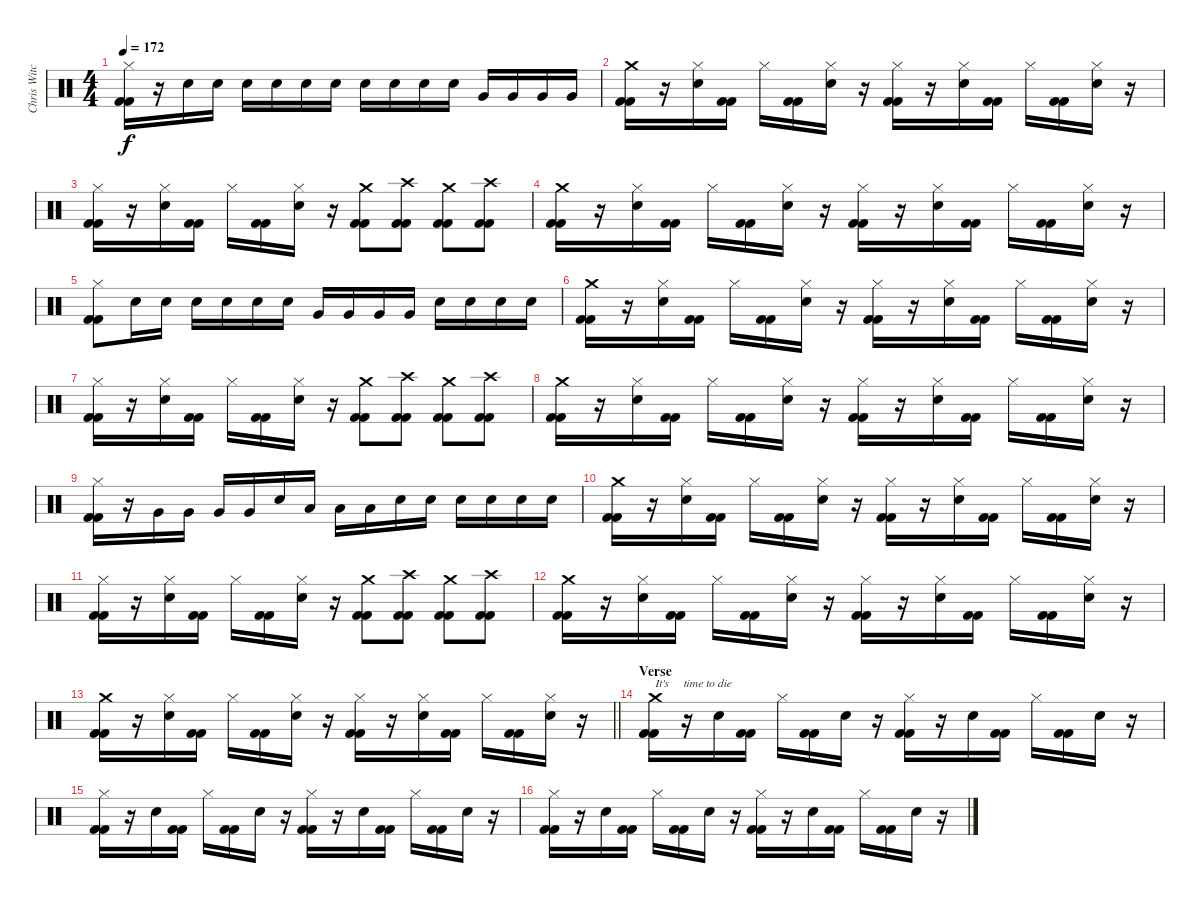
\track ("Chris Witchhunter" "Chris Witc") {instrument percussion}
\staff {score}
\articulation defaults
\ts (4 4)
\tempo 172
\clef neutral
\ks c
("Kick (hit) 2" "Kick (hit) 2" "Hi-Hat (closed)").16{dy f} r.16 "Snare (hit) 2".16 "Snare (hit) 2".16 "Snare (hit) 2".16 "Snare (hit) 2".16 "Snare (hit) 2".16 "Snare (hit) 2".16 "Snare (hit) 2".16 "Snare (hit) 2".16 "Snare (hit) 2".16 "Snare (hit) 2".16 "Very Low Tom (hit)".16 "Very Low Tom (hit)".16 "Very Low Tom (hit)".16 "Very Low Tom (hit)".16 |
("Kick (hit) 2" "Kick (hit) 2" "Crash medium (hit)").16 r.16 ("Snare (hit) 2" "Hi-Hat (closed)").16 ("Kick (hit) 2" "Kick (hit) 2").16 "Hi-Hat (closed)".16 ("Kick (hit) 2" "Kick (hit) 2").16 ("Snare (hit) 2" "Hi-Hat (closed)").16 r.16 ("Kick (hit) 2" "Kick (hit) 2" "Hi-Hat (closed)").16 r.16 ("Snare (hit) 2" "Hi-Hat (closed)").16 ("Kick (hit) 2" "Kick (hit) 2").16 "Hi-Hat (closed)".16 ("Kick (hit) 2" "Kick (hit) 2").16 ("Snare (hit) 2" "Hi-Hat (closed)").16 r.16 |
("Kick (hit) 2" "Kick (hit) 2" "Hi-Hat (closed)").16 r.16 ("Snare (hit) 2" "Hi-Hat (closed)").16 ("Kick (hit) 2" "Kick (hit) 2").16 "Hi-Hat (closed)".16 ("Kick (hit) 2" "Kick (hit) 2").16 ("Snare (hit) 2" "Hi-Hat (closed)").16 r.16 ("Kick (hit) 2" "Kick (hit) 2" "Crash medium (hit)").8 ("Kick (hit) 2" "Kick (hit) 2" "Crash high (hit)").8 ("Kick (hit) 2" "Kick (hit) 2" "Crash medium (hit)").8 ("Kick (hit) 2" "Kick (hit) 2" "Crash high (hit)").8 |
("Kick (hit) 2" "Kick (hit) 2" "Crash medium (hit)").16 r.16 ("Snare (hit) 2" "Hi-Hat (closed)").16 ("Kick (hit) 2" "Kick (hit) 2").16 "Hi-Hat (closed)".16 ("Kick (hit) 2" "Kick (hit) 2").16 ("Snare (hit) 2" "Hi-Hat (closed)").16 r.16 ("Kick (hit) 2" "Kick (hit) 2" "Hi-Hat (closed)").16 r.16 ("Snare (hit) 2" "Hi-Hat (closed)").16 ("Kick (hit) 2" "Kick (hit) 2").16 "Hi-Hat (closed)".16 ("Kick (hit) 2" "Kick (hit) 2").16 ("Snare (hit) 2" "Hi-Hat (closed)").16 r.16 |
("Kick (hit) 2" "Kick (hit) 2" "Hi-Hat (closed)").8 "Snare (hit) 2".16 "Snare (hit) 2".16 "Snare (hit) 2".16 "Snare (hit) 2".16 "Snare (hit) 2".16 "Snare (hit) 2".16 "Very Low Tom (hit)".16 "Very Low Tom (hit)".16 "Very Low Tom (hit)".16 "Very Low Tom (hit)".16 "Snare (hit) 2".16 "Snare (hit) 2".16 "Snare (hit) 2".16 "Snare (hit) 2".16 |
("Kick (hit) 2" "Kick (hit) 2" "Crash medium (hit)").16 r.16 ("Snare (hit) 2" "Hi-Hat (closed)").16 ("Kick (hit) 2" "Kick (hit) 2").16 "Hi-Hat (closed)".16 ("Kick (hit) 2" "Kick (hit) 2").16 ("Snare (hit) 2" "Hi-Hat (closed)").16 r.16 ("Kick (hit) 2" "Kick (hit) 2" "Hi-Hat (closed)").16 r.16 ("Snare (hit) 2" "Hi-Hat (closed)").16 ("Kick (hit) 2" "Kick (hit) 2").16 "Hi-Hat (closed)".16 ("Kick (hit) 2" "Kick (hit) 2").16 ("Snare (hit) 2" "Hi-Hat (closed)").16 r.16 |
("Kick (hit) 2" "Kick (hit) 2" "Hi-Hat (closed)").16 r.16 ("Snare (hit) 2" "Hi-Hat (closed)").16 ("Kick (hit) 2" "Kick (hit) 2").16 "Hi-Hat (closed)".16 ("Kick (hit) 2" "Kick (hit) 2").16 ("Snare (hit) 2" "Hi-Hat (closed)").16 r.16 ("Kick (hit) 2" "Kick (hit) 2" "Crash medium (hit)").8 ("Kick (hit) 2" "Kick (hit) 2" "Crash high (hit)").8 ("Kick (hit) 2" "Kick (hit) 2" "Crash medium (hit)").8 ("Kick (hit) 2" "Kick (hit) 2" "Crash high (hit)").8 |
("Kick (hit) 2" "Kick (hit) 2" "Crash medium (hit)").16 r.16 ("Snare (hit) 2" "Hi-Hat (closed)").16 ("Kick (hit) 2" "Kick (hit) 2").16 "Hi-Hat (closed)".16 ("Kick (hit) 2" "Kick (hit) 2").16 ("Snare (hit) 2" "Hi-Hat (closed)").16 r.16 ("Kick (hit) 2" "Kick (hit) 2" "Hi-Hat (closed)").16 r.16 ("Snare (hit) 2" "Hi-Hat (closed)").16 ("Kick (hit) 2" "Kick (hit) 2").16 "Hi-Hat (closed)".16 ("Kick (hit) 2" "Kick (hit) 2").16 ("Snare (hit) 2" "Hi-Hat (closed)").16 r.16 |
("Kick (hit) 2" "Kick (hit) 2" "Hi-Hat (closed)").16 r.16 "Very Low Tom (hit)".16 "Very Low Tom (hit)".16 "Very Low Tom (hit)".16 "Very Low Tom (hit)".16 "Snare (hit) 2".16 "Low Floor Tom (hit)".16 "Low Floor Tom (hit)".16 "Low Floor Tom (hit)".16 "Snare (hit) 2".16 "Snare (hit) 2".16 "Snare (hit) 2".16 "Snare (hit) 2".16 "Snare (hit) 2".16 "Snare (hit) 2".16 |
("Kick (hit) 2" "Kick (hit) 2" "Crash medium (hit)").16 r.16 ("Snare (hit) 2" "Hi-Hat (closed)").16 ("Kick (hit) 2" "Kick (hit) 2").16 "Hi-Hat (closed)".16 ("Kick (hit) 2" "Kick (hit) 2").16 ("Snare (hit) 2" "Hi-Hat (closed)").16 r.16 ("Kick (hit) 2" "Kick (hit) 2" "Hi-Hat (closed)").16 r.16 ("Snare (hit) 2" "Hi-Hat (closed)").16 ("Kick (hit) 2" "Kick (hit) 2").16 "Hi-Hat (closed)".16 ("Kick (hit) 2" "Kick (hit) 2").16 ("Snare (hit) 2" "Hi-Hat (closed)").16 r.16 |
("Kick (hit) 2" "Kick (hit) 2" "Hi-Hat (closed)").16 r.16 ("Snare (hit) 2" "Hi-Hat (closed)").16 ("Kick (hit) 2" "Kick (hit) 2").16 "Hi-Hat (closed)".16 ("Kick (hit) 2" "Kick (hit) 2").16 ("Snare (hit) 2" "Hi-Hat (closed)").16 r.16 ("Kick (hit) 2" "Kick (hit) 2" "Crash medium (hit)").8 ("Kick (hit) 2" "Kick (hit) 2" "Crash high (hit)").8 ("Kick (hit) 2" "Kick (hit) 2" "Crash medium (hit)").8 ("Kick (hit) 2" "Kick (hit) 2" "Crash high (hit)").8 |
("Kick (hit) 2" "Kick (hit) 2" "Crash medium (hit)").16 r.16 ("Snare (hit) 2" "Hi-Hat (closed)").16 ("Kick (hit) 2" "Kick (hit) 2").16 "Hi-Hat (closed)".16 ("Kick (hit) 2" "Kick (hit) 2").16 ("Snare (hit) 2" "Hi-Hat (closed)").16 r.16 ("Kick (hit) 2" "Kick (hit) 2" "Hi-Hat (closed)").16 r.16 ("Snare (hit) 2" "Hi-Hat (closed)").16 ("Kick (hit) 2" "Kick (hit) 2").16 "Hi-Hat (closed)".16 ("Kick (hit) 2" "Kick (hit) 2").16 ("Snare (hit) 2" "Hi-Hat (closed)").16 r.16 |
\barLineRight lightlight
("Kick (hit) 2" "Kick (hit) 2" "Crash medium (hit)").16 r.16 ("Snare (hit) 2" "Hi-Hat (closed)").16 ("Kick (hit) 2" "Kick (hit) 2").16 "Hi-Hat (closed)".16 ("Kick (hit) 2" "Kick (hit) 2").16 ("Snare (hit) 2" "Hi-Hat (closed)").16 r.16 ("Kick (hit) 2" "Kick (hit) 2" "Hi-Hat (closed)").16 r.16 ("Snare (hit) 2" "Hi-Hat (closed)").16 ("Kick (hit) 2" "Kick (hit) 2").16 "Hi-Hat (closed)".16 ("Kick (hit) 2" "Kick (hit) 2").16 ("Snare (hit) 2" "Hi-Hat (closed)").16 r.16 |
\section ("" "Verse")
("Kick (hit) 2" "Kick (hit) 2" "Crash medium (hit)").16{txt "It's     time to die"} r.16 "Snare (hit) 2".16 ("Kick (hit) 2" "Kick (hit) 2").16 "Hi-Hat (closed)".16 ("Kick (hit) 2" "Kick (hit) 2").16 "Snare (hit) 2".16 r.16 ("Kick (hit) 2" "Kick (hit) 2" "Hi-Hat (closed)").16 r.16 "Snare (hit) 2".16 ("Kick (hit) 2" "Kick (hit) 2").16 "Hi-Hat (closed)".16 ("Kick (hit) 2" "Kick (hit) 2").16 "Snare (hit) 2".16 r.16 |
("Kick (hit) 2" "Kick (hit) 2" "Hi-Hat (closed)").16 r.16 "Snare (hit) 2".16 ("Kick (hit) 2" "Kick (hit) 2").16 "Hi-Hat (closed)".16 ("Kick (hit) 2" "Kick (hit) 2").16 "Snare (hit) 2".16 r.16 ("Kick (hit) 2" "Kick (hit) 2" "Hi-Hat (closed)").16 r.16 "Snare (hit) 2".16 ("Kick (hit) 2" "Kick (hit) 2").16 "Hi-Hat (closed)".16 ("Kick (hit) 2" "Kick (hit) 2").16 "Snare (hit) 2".16 r.16 |
("Kick (hit) 2" "Kick (hit) 2" "Hi-Hat (closed)").16 r.16 "Snare (hit) 2".16 ("Kick (hit) 2" "Kick (hit) 2").16 "Hi-Hat (closed)".16 ("Kick (hit) 2" "Kick (hit) 2").16 "Snare (hit) 2".16 r.16 ("Kick (hit) 2" "Kick (hit) 2" "Hi-Hat (closed)").16 r.16 "Snare (hit) 2".16 ("Kick (hit) 2" "Kick (hit) 2").16 "Hi-Hat (closed)".16 ("Kick (hit) 2" "Kick (hit) 2").16 "Snare (hit) 2".16 r.16
